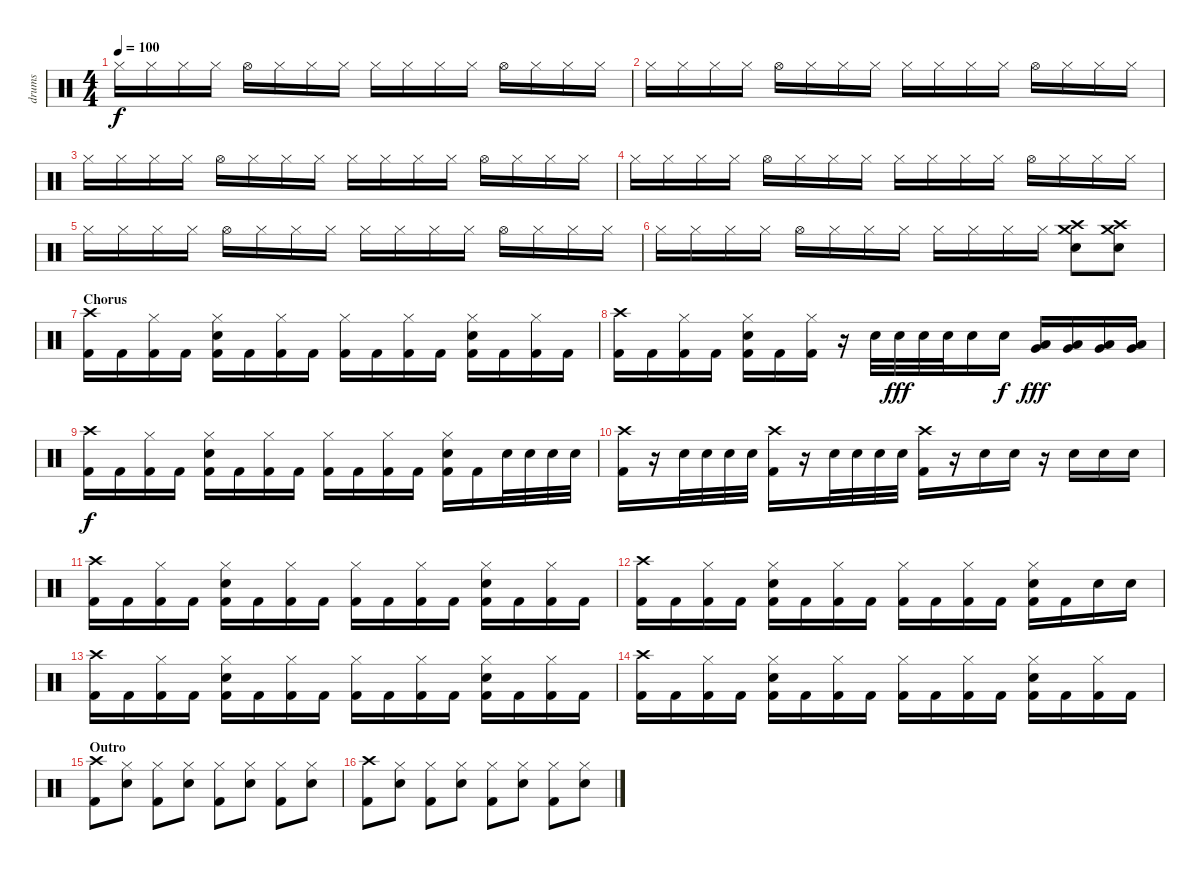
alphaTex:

\track ("drums" "drums") {instrument percussion}
\staff {score}
\articulation defaults
\ts (4 4)
\tempo 100
\clef neutral
\ks c "Hi-Hat (closed)".16{dy f} "Hi-Hat (closed)".16 "Hi-Hat (closed)".16 "Hi-Hat (closed)".16 "Hi-Hat (open)".16 "Hi-Hat (closed)".16 "Hi-Hat (closed)".16 "Hi-Hat (closed)".16 "Hi-Hat (closed)".16 "Hi-Hat (closed)".16 "Hi-Hat (closed)".16 "Hi-Hat (closed)".16 "Hi-Hat (open)".16 "Hi-Hat (closed)".16 "Hi-Hat (closed)".16 "Hi-Hat (closed)".16
|
"Hi-Hat (closed)".16 "Hi-Hat (closed)".16 "Hi-Hat (closed)".16 "Hi-Hat (closed)".16 "Hi-Hat (open)".16 "Hi-Hat (closed)".16 "Hi-Hat (closed)".16 "Hi-Hat (closed)".16 "Hi-Hat (closed)".16 "Hi-Hat (closed)".16 "Hi-Hat (closed)".16 "Hi-Hat (closed)".16 "Hi-Hat (open)".16 "Hi-Hat (closed)".16 "Hi-Hat (closed)".16 "Hi-Hat (closed)".16 |
"Hi-Hat (closed)".16 "Hi-Hat (closed)".16 "Hi-Hat (closed)".16 "Hi-Hat (closed)".16 "Hi-Hat (open)".16 "Hi-Hat (closed)".16 "Hi-Hat (closed)".16 "Hi-Hat (closed)".16 "Hi-Hat (closed)".16 "Hi-Hat (closed)".16 "Hi-Hat (closed)".16 "Hi-Hat (closed)".16 "Hi-Hat (open)".16 "Hi-Hat (closed)".16 "Hi-Hat (closed)".16 "Hi-Hat (closed)".16 |
"Hi-Hat (closed)".16 "Hi-Hat (closed)".16 "Hi-Hat (closed)".16 "Hi-Hat (closed)".16 "Hi-Hat (open)".16 "Hi-Hat (closed)".16 "Hi-Hat (closed)".16 "Hi-Hat (closed)".16 "Hi-Hat (closed)".16 "Hi-Hat (closed)".16 "Hi-Hat (closed)".16 "Hi-Hat (closed)".16 "Hi-Hat (open)".16 "Hi-Hat (closed)".16 "Hi-Hat (closed)".16 "Hi-Hat (closed)".16 |
"Hi-Hat (closed)".16 "Hi-Hat (closed)".16 "Hi-Hat (closed)".16 "Hi-Hat (closed)".16 "Hi-Hat (open)".16 "Hi-Hat (closed)".16 "Hi-Hat (closed)".16 "Hi-Hat (closed)".16 "Hi-Hat (closed)".16 "Hi-Hat (closed)".16 "Hi-Hat (closed)".16 "Hi-Hat (closed)".16 "Hi-Hat (open)".16 "Hi-Hat (closed)".16 "Hi-Hat (closed)".16 "Hi-Hat (closed)".16 |
"Hi-Hat (closed)".16 "Hi-Hat (closed)".16 "Hi-Hat (closed)".16 "Hi-Hat (closed)".16 "Hi-Hat (open)".16 "Hi-Hat (closed)".16 "Hi-Hat (closed)".16 "Hi-Hat (closed)".16 "Hi-Hat (closed)".16 "Hi-Hat (closed)".16 "Hi-Hat (closed)".16 "Hi-Hat (closed)".16 ("Crash high (hit)" "Crash medium (hit)" "Snare (hit) 2").8 ("Crash medium (hit)" "Crash high (hit)" "Snare (hit) 2").8 |
\section ("" "Chorus")
("Crash high (hit)" "Kick (hit) 2").16 "Kick (hit) 2".16 ("Hi-Hat (closed)" "Kick (hit) 2").16 "Kick (hit) 2".16 ("Hi-Hat (closed)" "Snare (hit) 2" "Kick (hit) 2").16 "Kick (hit) 2".16 ("Hi-Hat (closed)" "Kick (hit) 2").16 "Kick (hit) 2".16 ("Hi-Hat (closed)" "Kick (hit) 2").16 "Kick (hit) 2".16 ("Hi-Hat (closed)" "Kick (hit) 2").16 "Kick (hit) 2".16 ("Hi-Hat (closed)" "Snare (hit) 2" "Kick (hit) 2").16 "Kick (hit) 2".16 ("Hi-Hat (closed)" "Kick (hit) 2").16 "Kick (hit) 2".16 |
("Crash high (hit)" "Kick (hit) 2").16 "Kick (hit) 2".16 ("Hi-Hat (closed)" "Kick (hit) 2").16 "Kick (hit) 2".16 ("Hi-Hat (closed)" "Snare (hit) 2" "Kick (hit) 2").16 "Kick (hit) 2".16 ("Hi-Hat (closed)" "Kick (hit) 2").16 r.16 "Snare (hit) 2".32 "Snare (hit) 2".32{dy fff} "Snare (hit) 2".32 "Snare (hit) 2".32 "Snare (hit) 2".16 "Snare (hit) 2".16{dy f} ("Low Tom (hit)" "Very Low Tom (hit)").16{dy fff} ("Low Tom (hit)" "Very Low Tom (hit)").16 ("Very Low Tom (hit)" "Low Floor Tom (hit)").16 ("Very Low Tom (hit)" "Low Floor Tom (hit)").16 |
("Crash high (hit)" "Kick (hit) 2").16{dy f} "Kick (hit) 2".16 ("Hi-Hat (closed)" "Kick (hit) 2").16 "Kick (hit) 2".16 ("Hi-Hat (closed)" "Snare (hit) 2" "Kick (hit) 2").16 "Kick (hit) 2".16 ("Hi-Hat (closed)" "Kick (hit) 2").16 "Kick (hit) 2".16 ("Hi-Hat (closed)" "Kick (hit) 2").16 "Kick (hit) 2".16 ("Hi-Hat (closed)" "Kick (hit) 2").16 "Kick (hit) 2".16 ("Hi-Hat (closed)" "Snare (hit) 2" "Kick (hit) 2").16 "Kick (hit) 2".16 "Snare (hit) 2".32 "Snare (hit) 2".32 "Snare (hit) 2".32 "Snare (hit) 2".32 |
("Crash high (hit)" "Kick (hit) 2").16 r.16 "Snare (hit) 2".32 "Snare (hit) 2".32 "Snare (hit) 2".32 "Snare (hit) 2".32 ("Crash high (hit)" "Kick (hit) 2").16 r.16 "Snare (hit) 2".32 "Snare (hit) 2".32 "Snare (hit) 2".32 "Snare (hit) 2".32 ("Crash high (hit)" "Kick (hit) 2").16 r.16 "Snare (hit) 2".16 "Snare (hit) 2".16 r.16 "Snare (hit) 2".16 "Snare (hit) 2".16 "Snare (hit) 2".16 |
("Crash high (hit)" "Kick (hit) 2").16 "Kick (hit) 2".16 ("Hi-Hat (closed)" "Kick (hit) 2").16 "Kick (hit) 2".16 ("Hi-Hat (closed)" "Snare (hit) 2" "Kick (hit) 2").16 "Kick (hit) 2".16 ("Hi-Hat (closed)" "Kick (hit) 2").16 "Kick (hit) 2".16 ("Hi-Hat (closed)" "Kick (hit) 2").16 "Kick (hit) 2".16 ("Hi-Hat (closed)" "Kick (hit) 2").16 "Kick (hit) 2".16 ("Hi-Hat (closed)" "Snare (hit) 2" "Kick (hit) 2").16 "Kick (hit) 2".16 ("Hi-Hat (closed)" "Kick (hit) 2").16 "Kick (hit) 2".16 |
("Crash high (hit)" "Kick (hit) 2").16 "Kick (hit) 2".16 ("Hi-Hat (closed)" "Kick (hit) 2").16 "Kick (hit) 2".16 ("Hi-Hat (closed)" "Snare (hit) 2" "Kick (hit) 2").16 "Kick (hit) 2".16 ("Hi-Hat (closed)" "Kick (hit) 2").16 "Kick (hit) 2".16 ("Hi-Hat (closed)" "Kick (hit) 2").16 "Kick (hit) 2".16 ("Hi-Hat (closed)" "Kick (hit) 2").16 "Kick (hit) 2".16 ("Hi-Hat (closed)" "Snare (hit) 2" "Kick (hit) 2").16 "Kick (hit) 2".16 "Snare (hit) 2".16 "Snare (hit) 2".16 |
("Crash high (hit)" "Kick (hit) 2").16 "Kick (hit) 2".16 ("Hi-Hat (closed)" "Kick (hit) 2").16 "Kick (hit) 2".16 ("Hi-Hat (closed)" "Snare (hit) 2" "Kick (hit) 2").16 "Kick (hit) 2".16 ("Hi-Hat (closed)" "Kick (hit) 2").16 "Kick (hit) 2".16 ("Hi-Hat (closed)" "Kick (hit) 2").16 "Kick (hit) 2".16 ("Hi-Hat (closed)" "Kick (hit) 2").16 "Kick (hit) 2".16 ("Hi-Hat (closed)" "Snare (hit) 2" "Kick (hit) 2").16 "Kick (hit) 2".16 ("Hi-Hat (closed)" "Kick (hit) 2").16 "Kick (hit) 2".16 |
("Crash high (hit)" "Kick (hit) 2").16 "Kick (hit) 2".16 ("Hi-Hat (closed)" "Kick (hit) 2").16 "Kick (hit) 2".16 ("Hi-Hat (closed)" "Snare (hit) 2" "Kick (hit) 2").16 "Kick (hit) 2".16 ("Hi-Hat (closed)" "Kick (hit) 2").16 "Kick (hit) 2".16 ("Hi-Hat (closed)" "Kick (hit) 2").16 "Kick (hit) 2".16 ("Hi-Hat (closed)" "Kick (hit) 2").16 "Kick (hit) 2".16 ("Hi-Hat (closed)" "Snare (hit) 2" "Kick (hit) 2").16 "Kick (hit) 2".16 ("Hi-Hat (closed)" "Kick (hit) 2").16 "Kick (hit) 2".16 |
\section ("" "Outro")
("Crash high (hit)" "Kick (hit) 2").8 ("Hi-Hat (closed)" "Snare (hit) 2").8 ("Hi-Hat (closed)" "Kick (hit) 2").8 ("Hi-Hat (closed)" "Snare (hit) 2").8 ("Hi-Hat (closed)" "Kick (hit) 2").8 ("Hi-Hat (closed)" "Snare (hit) 2").8 ("Hi-Hat (closed)" "Kick (hit) 2").8 ("Hi-Hat (closed)" "Snare (hit) 2").8 |
("Crash high (hit)" "Kick (hit) 2").8 ("Hi-Hat (closed)" "Snare (hit) 2").8 ("Hi-Hat (closed)" "Kick (hit) 2").8 ("Hi-Hat (closed)" "Snare (hit) 2").8 ("Hi-Hat (closed)" "Kick (hit) 2").8 ("Hi-Hat (closed)" "Snare (hit) 2").8 ("Hi-Hat (closed)" "Kick (hit) 2").8 ("Hi-Hat (closed)" "Snare (hit) 2").8
